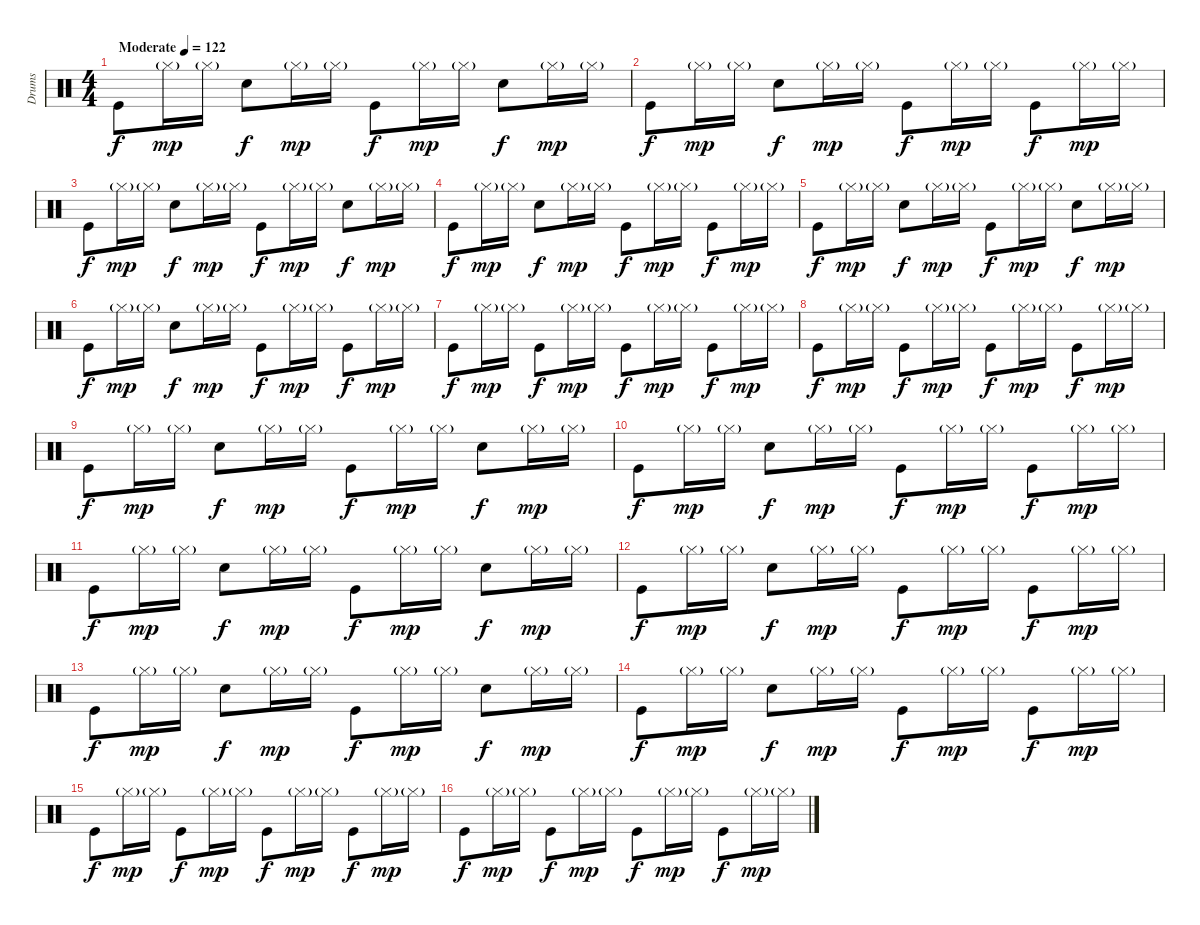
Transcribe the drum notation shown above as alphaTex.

\track ("Drums" "Drums") {instrument percussion}
\staff {score}
\articulation defaults
\ts (4 4)
\tempo (122 "Moderate")
\clef neutral
\ks c "Kick (hit)".8{dy f volume 8} "Hi-Hat (closed)"{g}.16{dy mp} "Hi-Hat (closed)"{g}.16 "Electric Snare (hit)".8{dy f} "Hi-Hat (closed)"{g}.16{dy mp} "Hi-Hat (closed)"{g}.16 "Kick (hit)".8{dy f} "Hi-Hat (closed)"{g}.16{dy mp} "Hi-Hat (closed)"{g}.16 "Electric Snare (hit)".8{dy f} "Hi-Hat (closed)"{g}.16{dy mp} "Hi-Hat (closed)"{g}.16
|
"Kick (hit)".8{dy f} "Hi-Hat (closed)"{g}.16{dy mp} "Hi-Hat (closed)"{g}.16 "Electric Snare (hit)".8{dy f} "Hi-Hat (closed)"{g}.16{dy mp} "Hi-Hat (closed)"{g}.16 "Kick (hit)".8{dy f} "Hi-Hat (closed)"{g}.16{dy mp} "Hi-Hat (closed)"{g}.16 "Kick (hit)".8{dy f} "Hi-Hat (closed)"{g}.16{dy mp} "Hi-Hat (closed)"{g}.16 |
"Kick (hit)".8{dy f} "Hi-Hat (closed)"{g}.16{dy mp} "Hi-Hat (closed)"{g}.16 "Electric Snare (hit)".8{dy f} "Hi-Hat (closed)"{g}.16{dy mp} "Hi-Hat (closed)"{g}.16 "Kick (hit)".8{dy f} "Hi-Hat (closed)"{g}.16{dy mp} "Hi-Hat (closed)"{g}.16 "Electric Snare (hit)".8{dy f} "Hi-Hat (closed)"{g}.16{dy mp} "Hi-Hat (closed)"{g}.16 |
"Kick (hit)".8{dy f} "Hi-Hat (closed)"{g}.16{dy mp} "Hi-Hat (closed)"{g}.16 "Electric Snare (hit)".8{dy f} "Hi-Hat (closed)"{g}.16{dy mp} "Hi-Hat (closed)"{g}.16 "Kick (hit)".8{dy f} "Hi-Hat (closed)"{g}.16{dy mp} "Hi-Hat (closed)"{g}.16 "Kick (hit)".8{dy f} "Hi-Hat (closed)"{g}.16{dy mp} "Hi-Hat (closed)"{g}.16 |
"Kick (hit)".8{dy f} "Hi-Hat (closed)"{g}.16{dy mp} "Hi-Hat (closed)"{g}.16 "Electric Snare (hit)".8{dy f} "Hi-Hat (closed)"{g}.16{dy mp} "Hi-Hat (closed)"{g}.16 "Kick (hit)".8{dy f} "Hi-Hat (closed)"{g}.16{dy mp} "Hi-Hat (closed)"{g}.16 "Electric Snare (hit)".8{dy f} "Hi-Hat (closed)"{g}.16{dy mp} "Hi-Hat (closed)"{g}.16 |
"Kick (hit)".8{dy f} "Hi-Hat (closed)"{g}.16{dy mp} "Hi-Hat (closed)"{g}.16 "Electric Snare (hit)".8{dy f} "Hi-Hat (closed)"{g}.16{dy mp} "Hi-Hat (closed)"{g}.16 "Kick (hit)".8{dy f} "Hi-Hat (closed)"{g}.16{dy mp} "Hi-Hat (closed)"{g}.16 "Kick (hit)".8{dy f} "Hi-Hat (closed)"{g}.16{dy mp} "Hi-Hat (closed)"{g}.16 |
"Kick (hit)".8{dy f} "Hi-Hat (closed)"{g}.16{dy mp} "Hi-Hat (closed)"{g}.16 "Kick (hit)".8{dy f} "Hi-Hat (closed)"{g}.16{dy mp} "Hi-Hat (closed)"{g}.16 "Kick (hit)".8{dy f} "Hi-Hat (closed)"{g}.16{dy mp} "Hi-Hat (closed)"{g}.16 "Kick (hit)".8{dy f} "Hi-Hat (closed)"{g}.16{dy mp} "Hi-Hat (closed)"{g}.16 |
"Kick (hit)".8{dy f} "Hi-Hat (closed)"{g}.16{dy mp} "Hi-Hat (closed)"{g}.16 "Kick (hit)".8{dy f} "Hi-Hat (closed)"{g}.16{dy mp} "Hi-Hat (closed)"{g}.16 "Kick (hit)".8{dy f} "Hi-Hat (closed)"{g}.16{dy mp} "Hi-Hat (closed)"{g}.16 "Kick (hit)".8{dy f} "Hi-Hat (closed)"{g}.16{dy mp} "Hi-Hat (closed)"{g}.16 |
"Kick (hit)".8{dy f} "Hi-Hat (closed)"{g}.16{dy mp} "Hi-Hat (closed)"{g}.16 "Electric Snare (hit)".8{dy f} "Hi-Hat (closed)"{g}.16{dy mp} "Hi-Hat (closed)"{g}.16 "Kick (hit)".8{dy f} "Hi-Hat (closed)"{g}.16{dy mp} "Hi-Hat (closed)"{g}.16 "Electric Snare (hit)".8{dy f} "Hi-Hat (closed)"{g}.16{dy mp} "Hi-Hat (closed)"{g}.16 |
"Kick (hit)".8{dy f} "Hi-Hat (closed)"{g}.16{dy mp} "Hi-Hat (closed)"{g}.16 "Electric Snare (hit)".8{dy f} "Hi-Hat (closed)"{g}.16{dy mp} "Hi-Hat (closed)"{g}.16 "Kick (hit)".8{dy f} "Hi-Hat (closed)"{g}.16{dy mp} "Hi-Hat (closed)"{g}.16 "Kick (hit)".8{dy f} "Hi-Hat (closed)"{g}.16{dy mp} "Hi-Hat (closed)"{g}.16 |
"Kick (hit)".8{dy f} "Hi-Hat (closed)"{g}.16{dy mp} "Hi-Hat (closed)"{g}.16 "Electric Snare (hit)".8{dy f} "Hi-Hat (closed)"{g}.16{dy mp} "Hi-Hat (closed)"{g}.16 "Kick (hit)".8{dy f} "Hi-Hat (closed)"{g}.16{dy mp} "Hi-Hat (closed)"{g}.16 "Electric Snare (hit)".8{dy f} "Hi-Hat (closed)"{g}.16{dy mp} "Hi-Hat (closed)"{g}.16 |
"Kick (hit)".8{dy f} "Hi-Hat (closed)"{g}.16{dy mp} "Hi-Hat (closed)"{g}.16 "Electric Snare (hit)".8{dy f} "Hi-Hat (closed)"{g}.16{dy mp} "Hi-Hat (closed)"{g}.16 "Kick (hit)".8{dy f} "Hi-Hat (closed)"{g}.16{dy mp} "Hi-Hat (closed)"{g}.16 "Kick (hit)".8{dy f} "Hi-Hat (closed)"{g}.16{dy mp} "Hi-Hat (closed)"{g}.16 |
"Kick (hit)".8{dy f} "Hi-Hat (closed)"{g}.16{dy mp} "Hi-Hat (closed)"{g}.16 "Electric Snare (hit)".8{dy f} "Hi-Hat (closed)"{g}.16{dy mp} "Hi-Hat (closed)"{g}.16 "Kick (hit)".8{dy f} "Hi-Hat (closed)"{g}.16{dy mp} "Hi-Hat (closed)"{g}.16 "Electric Snare (hit)".8{dy f} "Hi-Hat (closed)"{g}.16{dy mp} "Hi-Hat (closed)"{g}.16 |
"Kick (hit)".8{dy f} "Hi-Hat (closed)"{g}.16{dy mp} "Hi-Hat (closed)"{g}.16 "Electric Snare (hit)".8{dy f} "Hi-Hat (closed)"{g}.16{dy mp} "Hi-Hat (closed)"{g}.16 "Kick (hit)".8{dy f} "Hi-Hat (closed)"{g}.16{dy mp} "Hi-Hat (closed)"{g}.16 "Kick (hit)".8{dy f} "Hi-Hat (closed)"{g}.16{dy mp} "Hi-Hat (closed)"{g}.16 |
"Kick (hit)".8{dy f} "Hi-Hat (closed)"{g}.16{dy mp} "Hi-Hat (closed)"{g}.16 "Kick (hit)".8{dy f} "Hi-Hat (closed)"{g}.16{dy mp} "Hi-Hat (closed)"{g}.16 "Kick (hit)".8{dy f} "Hi-Hat (closed)"{g}.16{dy mp} "Hi-Hat (closed)"{g}.16 "Kick (hit)".8{dy f} "Hi-Hat (closed)"{g}.16{dy mp} "Hi-Hat (closed)"{g}.16 |
"Kick (hit)".8{dy f} "Hi-Hat (closed)"{g}.16{dy mp} "Hi-Hat (closed)"{g}.16 "Kick (hit)".8{dy f} "Hi-Hat (closed)"{g}.16{dy mp} "Hi-Hat (closed)"{g}.16 "Kick (hit)".8{dy f} "Hi-Hat (closed)"{g}.16{dy mp} "Hi-Hat (closed)"{g}.16 "Kick (hit)".8{dy f} "Hi-Hat (closed)"{g}.16{dy mp} "Hi-Hat (closed)"{g}.16
